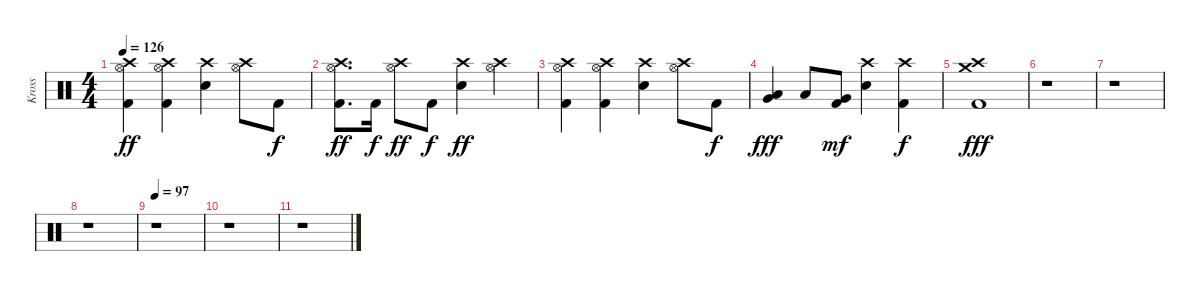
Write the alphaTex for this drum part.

\track ("Kross" "Kross") {instrument percussion}
\staff {score}
\articulation defaults
\ts (4 4)
\tempo 126
\clef neutral
\ks c
("Crash high (hit)" "Hi-Hat (open)" "Kick (hit) 2").4{dy ff} ("Crash high (hit)" "Hi-Hat (open)" "Kick (hit) 2").4 ("Crash high (hit)" "Electric Snare (hit)").4 ("Crash high (hit)" "Hi-Hat (open)").8 "Kick (hit) 2".8{dy f} |
("Crash high (hit)" "Hi-Hat (open)" "Kick (hit) 2").8{d dy ff} "Kick (hit) 2".16{dy f} ("Crash high (hit)" "Hi-Hat (open)").8{dy ff} "Kick (hit) 2".8{dy f} ("Crash high (hit)" "Electric Snare (hit)").4{dy ff} ("Crash high (hit)" "Hi-Hat (open)").4 |
("Crash high (hit)" "Hi-Hat (open)" "Kick (hit) 2").4 ("Crash high (hit)" "Hi-Hat (open)" "Kick (hit) 2").4 ("Crash high (hit)" "Electric Snare (hit)").4 ("Crash high (hit)" "Hi-Hat (open)").8 "Kick (hit) 2".8{dy f} |
("Low Tom (hit)" "Very Low Tom (hit)").4{dy fff} "Low Tom (hit)".8 ("Very Low Tom (hit)" "Kick (hit) 2").8{dy mf} ("Crash high (hit)" "Electric Snare (hit)").4 ("Crash high (hit)" "Kick (hit) 2").4{dy f} |
("Crash high (hit)" "Crash medium (hit)" "Kick (hit) 2").1{dy fff} |
r.1 |
r.1 |
r.1 |
\tempo 97
r.1 |
r.1 |
r.1
